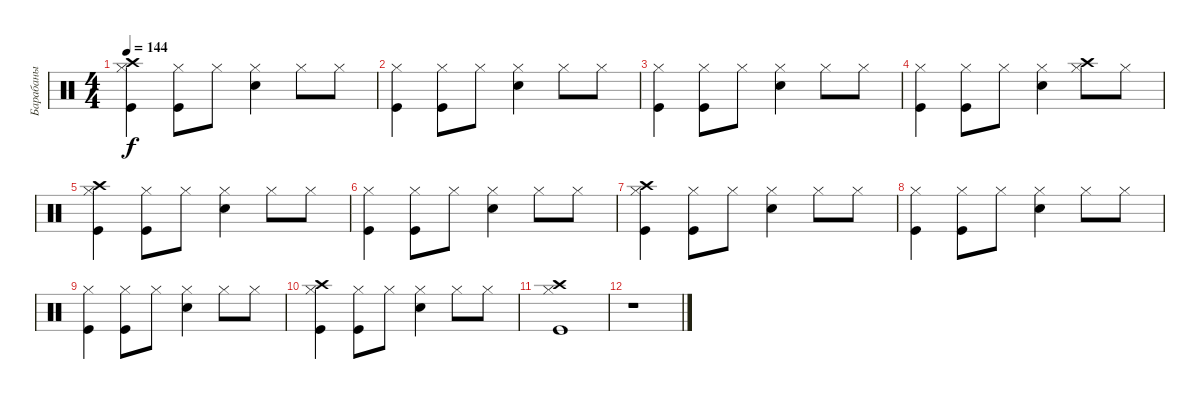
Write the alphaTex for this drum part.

\track ("Барабаны" "Барабаны") {instrument percussion}
\staff {score}
\articulation defaults
\ts (4 4)
\tempo 144
\clef neutral
\ks c
("Kick (hit)" "Hi-Hat (closed)" "Crash high (hit)").4{dy f} ("Kick (hit)" "Hi-Hat (closed)").8 "Hi-Hat (closed)".8 ("Snare (hit) 2" "Hi-Hat (closed)").4 "Hi-Hat (closed)".8 "Hi-Hat (closed)".8 |
("Kick (hit)" "Hi-Hat (closed)").4 ("Kick (hit)" "Hi-Hat (closed)").8 "Hi-Hat (closed)".8 ("Snare (hit) 2" "Hi-Hat (closed)").4 "Hi-Hat (closed)".8 "Hi-Hat (closed)".8 |
("Kick (hit)" "Hi-Hat (closed)").4 ("Kick (hit)" "Hi-Hat (closed)").8 "Hi-Hat (closed)".8 ("Snare (hit) 2" "Hi-Hat (closed)").4 "Hi-Hat (closed)".8 "Hi-Hat (closed)".8 |
("Kick (hit)" "Hi-Hat (closed)").4 ("Kick (hit)" "Hi-Hat (closed)").8 "Hi-Hat (closed)".8 ("Snare (hit) 2" "Hi-Hat (closed)").4 ("Hi-Hat (closed)" "Crash high (hit)").8 "Hi-Hat (closed)".8 |
("Kick (hit)" "Hi-Hat (closed)" "Crash high (hit)").4 ("Kick (hit)" "Hi-Hat (closed)").8 "Hi-Hat (closed)".8 ("Snare (hit) 2" "Hi-Hat (closed)").4 "Hi-Hat (closed)".8 "Hi-Hat (closed)".8 |
("Kick (hit)" "Hi-Hat (closed)").4 ("Kick (hit)" "Hi-Hat (closed)").8 "Hi-Hat (closed)".8 ("Snare (hit) 2" "Hi-Hat (closed)").4 "Hi-Hat (closed)".8 "Hi-Hat (closed)".8 |
("Kick (hit)" "Hi-Hat (closed)" "Crash high (hit)").4 ("Kick (hit)" "Hi-Hat (closed)").8 "Hi-Hat (closed)".8 ("Snare (hit) 2" "Hi-Hat (closed)").4 "Hi-Hat (closed)".8 "Hi-Hat (closed)".8 |
("Kick (hit)" "Hi-Hat (closed)").4 ("Kick (hit)" "Hi-Hat (closed)").8 "Hi-Hat (closed)".8 ("Snare (hit) 2" "Hi-Hat (closed)").4 "Hi-Hat (closed)".8 "Hi-Hat (closed)".8 |
("Kick (hit)" "Hi-Hat (closed)").4 ("Kick (hit)" "Hi-Hat (closed)").8 "Hi-Hat (closed)".8 ("Snare (hit) 2" "Hi-Hat (closed)").4 "Hi-Hat (closed)".8 "Hi-Hat (closed)".8 |
("Kick (hit)" "Hi-Hat (closed)" "Crash high (hit)").4 ("Kick (hit)" "Hi-Hat (closed)").8 "Hi-Hat (closed)".8 ("Snare (hit) 2" "Hi-Hat (closed)").4 "Hi-Hat (closed)".8 "Hi-Hat (closed)".8 |
("Kick (hit)" "Hi-Hat (closed)" "Crash high (hit)").1 |
r.1
